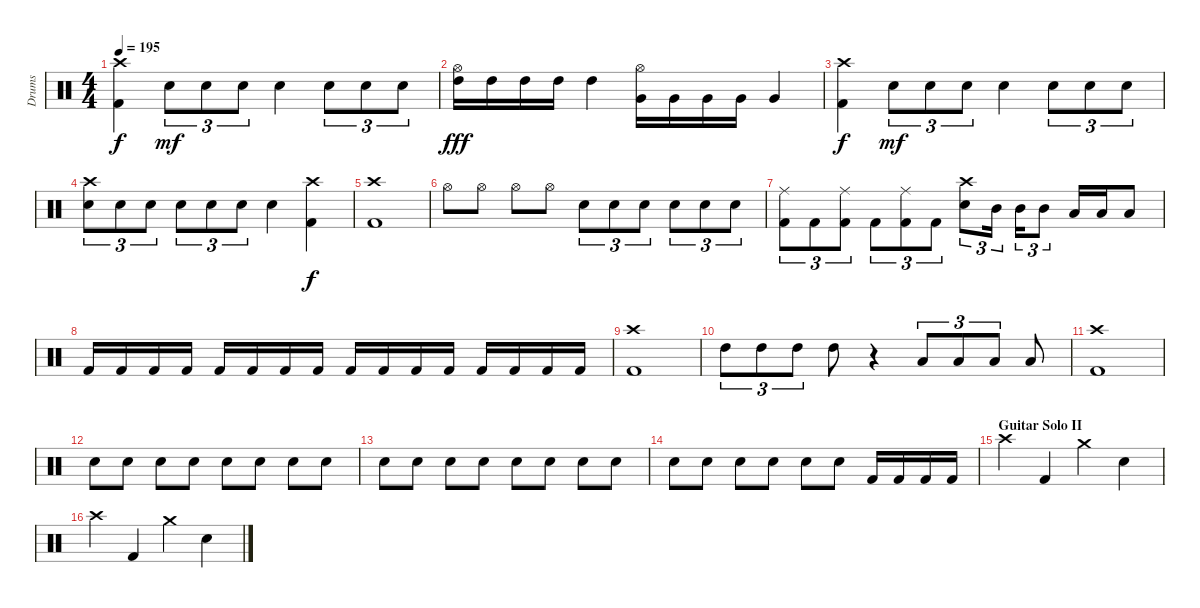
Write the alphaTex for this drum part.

\track ("Drums" "Drums") {instrument percussion}
\staff {score}
\articulation defaults
\ts (4 4)
\tempo 195
\clef neutral
\ks c
("Crash high (hit)" "Kick (hit) 2").4{dy f} "Snare (hit) 2".8{tu (3 2) dy mf} "Snare (hit) 2".8{tu (3 2)} "Snare (hit) 2".8{tu (3 2)} "Snare (hit) 2".4 "Snare (hit) 2".8{tu (3 2)} "Snare (hit) 2".8{tu (3 2)} "Snare (hit) 2".8{tu (3 2)} |
("Hi-Hat (open)" "High Tom (hit)").16{dy fff} "High Tom (hit)".16 "High Tom (hit)".16 "High Tom (hit)".16 "High Tom (hit)".4 ("Hi-Hat (open)" "Very Low Tom (hit)").16 "Very Low Tom (hit)".16 "Very Low Tom (hit)".16 "Very Low Tom (hit)".16 "Very Low Tom (hit)".4 |
("Crash high (hit)" "Kick (hit) 2").4{dy f} "Snare (hit) 2".8{tu (3 2) dy mf} "Snare (hit) 2".8{tu (3 2)} "Snare (hit) 2".8{tu (3 2)} "Snare (hit) 2".4 "Snare (hit) 2".8{tu (3 2)} "Snare (hit) 2".8{tu (3 2)} "Snare (hit) 2".8{tu (3 2)} |
("Crash high (hit)" "Snare (hit) 2").8{tu (3 2)} "Snare (hit) 2".8{tu (3 2)} "Snare (hit) 2".8{tu (3 2)} "Snare (hit) 2".8{tu (3 2)} "Snare (hit) 2".8{tu (3 2)} "Snare (hit) 2".8{tu (3 2)} "Snare (hit) 2".4 ("Crash high (hit)" "Kick (hit) 2").4{dy f} |
("Crash high (hit)" "Kick (hit) 2").1 |
"Hi-Hat (open)".8 "Hi-Hat (open)".8 "Hi-Hat (open)".8 "Hi-Hat (open)".8 "Snare (hit) 2".8{tu (3 2)} "Snare (hit) 2".8{tu (3 2)} "Snare (hit) 2".8{tu (3 2)} "Snare (hit) 2".8{tu (3 2)} "Snare (hit) 2".8{tu (3 2)} "Snare (hit) 2".8{tu (3 2)} |
("Ride (middle)" "Kick (hit) 2").8{tu (3 2)} "Kick (hit) 2".8{tu (3 2)} ("Ride (middle)" "Kick (hit) 2").8{tu (3 2)} "Kick (hit) 2".8{tu (3 2)} ("Ride (middle)" "Kick (hit) 2").8{tu (3 2)} "Kick (hit) 2".8{tu (3 2)} ("Crash high (hit)" "Snare (hit) 2").8{tu (3 2)} "Mid Tom (hit)".16{tu (3 2)} "Mid Tom (hit)".16{tu (3 2)} "Mid Tom (hit)".8{tu (3 2)} "Low Tom (hit)".16 "Low Tom (hit)".16 "Low Tom (hit)".8 |
"Kick (hit) 2".16 "Kick (hit) 2".16 "Kick (hit) 2".16 "Kick (hit) 2".16 "Kick (hit) 2".16 "Kick (hit) 2".16 "Kick (hit) 2".16 "Kick (hit) 2".16 "Kick (hit) 2".16 "Kick (hit) 2".16 "Kick (hit) 2".16 "Kick (hit) 2".16 "Kick (hit) 2".16 "Kick (hit) 2".16 "Kick (hit) 2".16 "Kick (hit) 2".16 |
("Crash high (hit)" "Kick (hit) 2").1 |
"High Tom (hit)".8{tu (3 2)} "High Tom (hit)".8{tu (3 2)} "High Tom (hit)".8{tu (3 2)} "High Tom (hit)".8 r.4 "Low Tom (hit)".8{tu (3 2)} "Low Tom (hit)".8{tu (3 2)} "Low Tom (hit)".8{tu (3 2)} "Low Tom (hit)".8 |
("Crash high (hit)" "Kick (hit) 2").1 |
"Snare (hit) 2".8{volume 0} "Snare (hit) 2".8{volume 16} "Snare (hit) 2".8 "Snare (hit) 2".8 "Snare (hit) 2".8 "Snare (hit) 2".8 "Snare (hit) 2".8 "Snare (hit) 2".8 |
"Snare (hit) 2".8 "Snare (hit) 2".8 "Snare (hit) 2".8 "Snare (hit) 2".8 "Snare (hit) 2".8 "Snare (hit) 2".8 "Snare (hit) 2".8 "Snare (hit) 2".8 |
"Snare (hit) 2".8 "Snare (hit) 2".8 "Snare (hit) 2".8 "Snare (hit) 2".8 "Snare (hit) 2".8 "Snare (hit) 2".8 "Kick (hit) 2".16 "Kick (hit) 2".16 "Kick (hit) 2".16 "Kick (hit) 2".16 |
\section ("" "Guitar Solo II")
"Crash high (hit)".4 "Kick (hit) 2".4 "Crash medium (hit)".4 "Snare (hit) 2".4 |
"Crash high (hit)".4 "Kick (hit) 2".4 "Crash medium (hit)".4 "Snare (hit) 2".4
